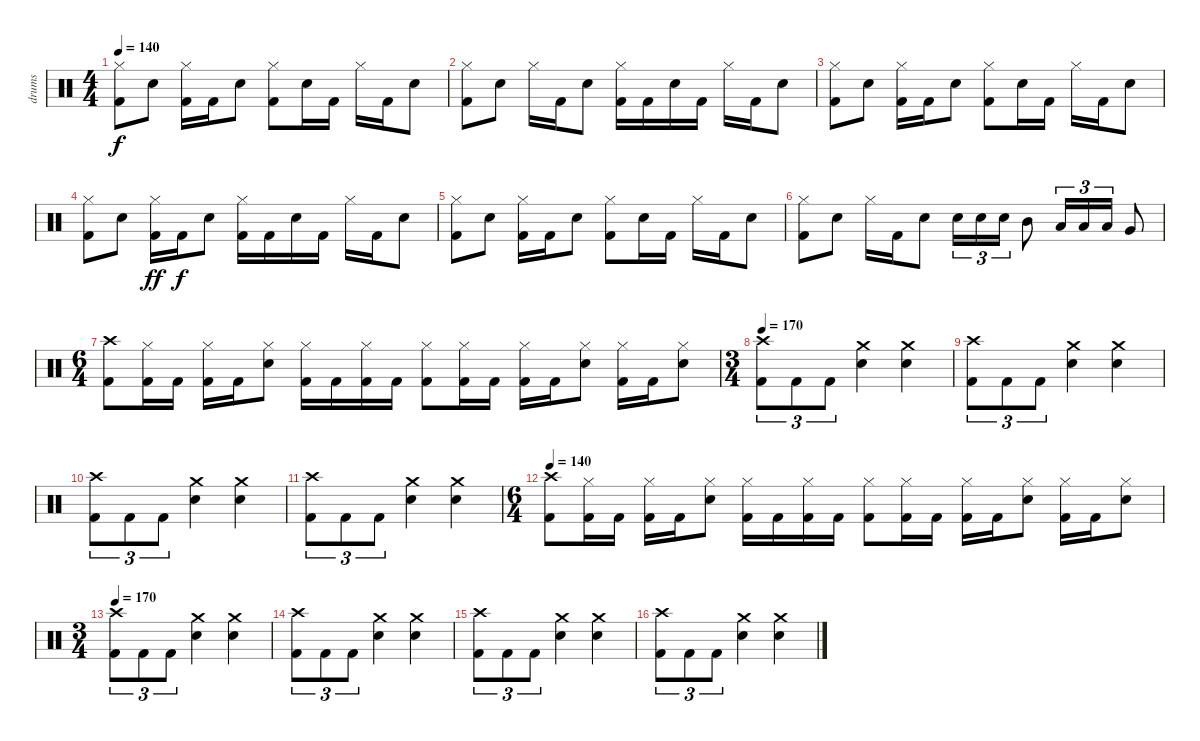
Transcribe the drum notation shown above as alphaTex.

\track ("drums" "drums") {instrument percussion}
\staff {score}
\articulation defaults
\ts (4 4)
\tempo 140
\clef neutral
\ks c
("Hi-Hat (closed)" "Kick (hit) 2").8{dy f} "Electric Snare (hit)".8 ("Hi-Hat (closed)" "Kick (hit) 2").16 "Kick (hit) 2".16 "Electric Snare (hit)".8 ("Hi-Hat (closed)" "Kick (hit) 2").8 "Electric Snare (hit)".16 "Kick (hit) 2".16 "Hi-Hat (closed)".16 "Kick (hit) 2".16 "Electric Snare (hit)".8 |
("Hi-Hat (closed)" "Kick (hit) 2").8 "Electric Snare (hit)".8 "Hi-Hat (closed)".16 "Kick (hit) 2".16 "Electric Snare (hit)".8 ("Hi-Hat (closed)" "Kick (hit) 2").16 "Kick (hit) 2".16 "Electric Snare (hit)".16 "Kick (hit) 2".16 "Hi-Hat (closed)".16 "Kick (hit) 2".16 "Electric Snare (hit)".8 |
("Hi-Hat (closed)" "Kick (hit) 2").8 "Electric Snare (hit)".8 ("Hi-Hat (closed)" "Kick (hit) 2").16 "Kick (hit) 2".16 "Electric Snare (hit)".8 ("Hi-Hat (closed)" "Kick (hit) 2").8 "Electric Snare (hit)".16 "Kick (hit) 2".16 "Hi-Hat (closed)".16 "Kick (hit) 2".16 "Electric Snare (hit)".8 |
("Hi-Hat (closed)" "Kick (hit) 2").8 "Electric Snare (hit)".8 ("Hi-Hat (closed)" "Kick (hit) 2").16{dy ff} "Kick (hit) 2".16{dy f} "Electric Snare (hit)".8 ("Hi-Hat (closed)" "Kick (hit) 2").16 "Kick (hit) 2".16 "Electric Snare (hit)".16 "Kick (hit) 2".16 "Hi-Hat (closed)".16 "Kick (hit) 2".16 "Electric Snare (hit)".8 |
("Hi-Hat (closed)" "Kick (hit) 2").8 "Electric Snare (hit)".8 ("Hi-Hat (closed)" "Kick (hit) 2").16 "Kick (hit) 2".16 "Electric Snare (hit)".8 ("Hi-Hat (closed)" "Kick (hit) 2").8 "Electric Snare (hit)".16 "Kick (hit) 2".16 "Hi-Hat (closed)".16 "Kick (hit) 2".16 "Electric Snare (hit)".8 |
("Hi-Hat (closed)" "Kick (hit) 2").8 "Electric Snare (hit)".8 "Hi-Hat (closed)".16 "Kick (hit) 2".16 "Electric Snare (hit)".8 "Electric Snare (hit)".16{tu (3 2)} "Electric Snare (hit)".16{tu (3 2)} "Electric Snare (hit)".16{tu (3 2)} "Mid Tom (hit)".8 "Low Tom (hit)".16{tu (3 2)} "Low Tom (hit)".16{tu (3 2)} "Low Tom (hit)".16{tu (3 2)} "Very Low Tom (hit)".8 |
\ts (6 4)
("Crash high (hit)" "Kick (hit) 2").8 ("Hi-Hat (closed)" "Kick (hit) 2").16 "Kick (hit) 2".16 ("Hi-Hat (closed)" "Kick (hit) 2").16 "Kick (hit) 2".16 ("Hi-Hat (closed)" "Electric Snare (hit)").8 ("Hi-Hat (closed)" "Kick (hit) 2").16 "Kick (hit) 2".16 ("Hi-Hat (closed)" "Kick (hit) 2").16 "Kick (hit) 2".16 ("Hi-Hat (closed)" "Kick (hit) 2").8 ("Hi-Hat (closed)" "Kick (hit) 2").16 "Kick (hit) 2".16 ("Hi-Hat (closed)" "Kick (hit) 2").16 "Kick (hit) 2".16 ("Hi-Hat (closed)" "Electric Snare (hit)").8 ("Hi-Hat (closed)" "Kick (hit) 2").16 "Kick (hit) 2".16 ("Hi-Hat (closed)" "Electric Snare (hit)").8 |
\ts (3 4)
\tempo 170
("Crash high (hit)" "Kick (hit) 2").8{tu (3 2)} "Kick (hit) 2".8{tu (3 2)} "Kick (hit) 2".8{tu (3 2)} ("Crash medium (hit)" "Electric Snare (hit)").4 ("Crash medium (hit)" "Electric Snare (hit)").4 |
("Crash high (hit)" "Kick (hit) 2").8{tu (3 2)} "Kick (hit) 2".8{tu (3 2)} "Kick (hit) 2".8{tu (3 2)} ("Crash medium (hit)" "Electric Snare (hit)").4 ("Crash medium (hit)" "Electric Snare (hit)").4 |
("Crash high (hit)" "Kick (hit) 2").8{tu (3 2)} "Kick (hit) 2".8{tu (3 2)} "Kick (hit) 2".8{tu (3 2)} ("Crash medium (hit)" "Electric Snare (hit)").4 ("Crash medium (hit)" "Electric Snare (hit)").4 |
("Crash high (hit)" "Kick (hit) 2").8{tu (3 2)} "Kick (hit) 2".8{tu (3 2)} "Kick (hit) 2".8{tu (3 2)} ("Crash medium (hit)" "Electric Snare (hit)").4 ("Crash medium (hit)" "Electric Snare (hit)").4 |
\ts (6 4)
\tempo 140
("Crash high (hit)" "Kick (hit) 2").8 ("Hi-Hat (closed)" "Kick (hit) 2").16 "Kick (hit) 2".16 ("Hi-Hat (closed)" "Kick (hit) 2").16 "Kick (hit) 2".16 ("Hi-Hat (closed)" "Electric Snare (hit)").8 ("Hi-Hat (closed)" "Kick (hit) 2").16 "Kick (hit) 2".16 ("Hi-Hat (closed)" "Kick (hit) 2").16 "Kick (hit) 2".16 ("Hi-Hat (closed)" "Kick (hit) 2").8 ("Hi-Hat (closed)" "Kick (hit) 2").16 "Kick (hit) 2".16 ("Hi-Hat (closed)" "Kick (hit) 2").16 "Kick (hit) 2".16 ("Hi-Hat (closed)" "Electric Snare (hit)").8 ("Hi-Hat (closed)" "Kick (hit) 2").16 "Kick (hit) 2".16 ("Hi-Hat (closed)" "Electric Snare (hit)").8 |
\ts (3 4)
\tempo 170
("Crash high (hit)" "Kick (hit) 2").8{tu (3 2)} "Kick (hit) 2".8{tu (3 2)} "Kick (hit) 2".8{tu (3 2)} ("Crash medium (hit)" "Electric Snare (hit)").4 ("Crash medium (hit)" "Electric Snare (hit)").4 |
("Crash high (hit)" "Kick (hit) 2").8{tu (3 2)} "Kick (hit) 2".8{tu (3 2)} "Kick (hit) 2".8{tu (3 2)} ("Crash medium (hit)" "Electric Snare (hit)").4 ("Crash medium (hit)" "Electric Snare (hit)").4 |
("Crash high (hit)" "Kick (hit) 2").8{tu (3 2)} "Kick (hit) 2".8{tu (3 2)} "Kick (hit) 2".8{tu (3 2)} ("Crash medium (hit)" "Electric Snare (hit)").4 ("Crash medium (hit)" "Electric Snare (hit)").4 |
("Crash high (hit)" "Kick (hit) 2").8{tu (3 2)} "Kick (hit) 2".8{tu (3 2)} "Kick (hit) 2".8{tu (3 2)} ("Crash medium (hit)" "Electric Snare (hit)").4 ("Crash medium (hit)" "Electric Snare (hit)").4
